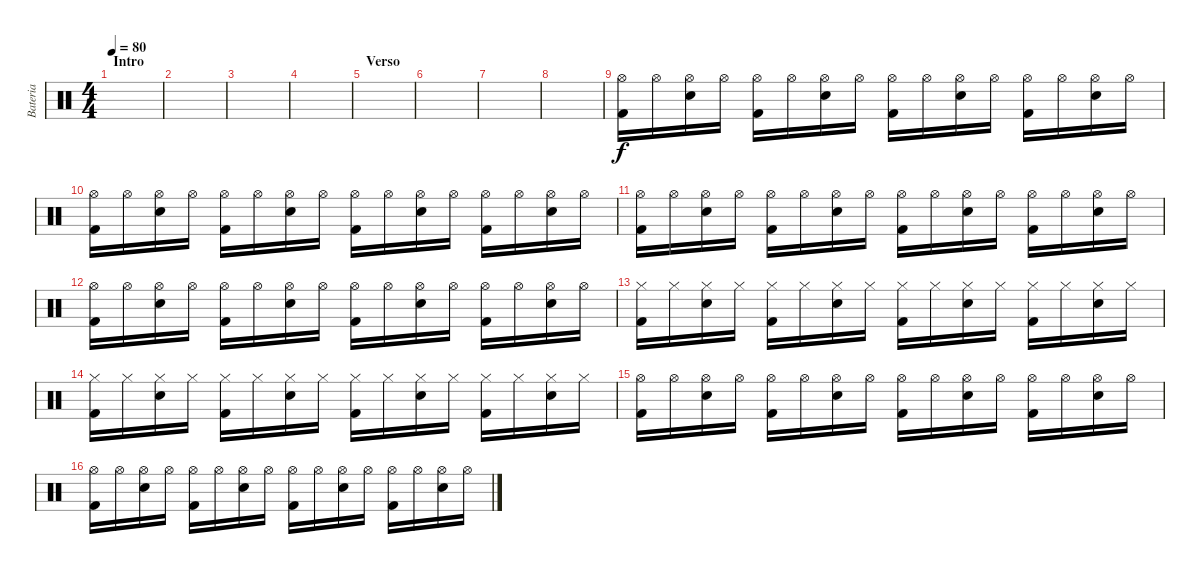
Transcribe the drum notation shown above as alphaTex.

\track ("Bateria" "Bateria") {instrument percussion}
\staff {score}
\articulation defaults
\ts (4 4)
\section ("" "Intro")
\tempo 80
\clef neutral
\ks c
|
|
|
|
\section ("" "Verso")
|
|
|
|
("Hi-Hat (open)" "Kick (hit) 2").16 "Hi-Hat (open)".16 ("Hi-Hat (open)" "Electric Snare (hit)").16 "Hi-Hat (open)".16 ("Hi-Hat (open)" "Kick (hit) 2").16 "Hi-Hat (open)".16 ("Hi-Hat (open)" "Electric Snare (hit)").16 "Hi-Hat (open)".16 ("Hi-Hat (open)" "Kick (hit) 2").16 "Hi-Hat (open)".16 ("Hi-Hat (open)" "Electric Snare (hit)").16 "Hi-Hat (open)".16 ("Hi-Hat (open)" "Kick (hit) 2").16 "Hi-Hat (open)".16 ("Hi-Hat (open)" "Electric Snare (hit)").16 "Hi-Hat (open)".16 |
("Hi-Hat (open)" "Kick (hit) 2").16 "Hi-Hat (open)".16 ("Hi-Hat (open)" "Electric Snare (hit)").16 "Hi-Hat (open)".16 ("Hi-Hat (open)" "Kick (hit) 2").16 "Hi-Hat (open)".16 ("Hi-Hat (open)" "Electric Snare (hit)").16 "Hi-Hat (open)".16 ("Hi-Hat (open)" "Kick (hit) 2").16 "Hi-Hat (open)".16 ("Hi-Hat (open)" "Electric Snare (hit)").16 "Hi-Hat (open)".16 ("Hi-Hat (open)" "Kick (hit) 2").16 "Hi-Hat (open)".16 ("Hi-Hat (open)" "Electric Snare (hit)").16 "Hi-Hat (open)".16 |
("Hi-Hat (open)" "Kick (hit) 2").16 "Hi-Hat (open)".16 ("Hi-Hat (open)" "Electric Snare (hit)").16 "Hi-Hat (open)".16 ("Hi-Hat (open)" "Kick (hit) 2").16 "Hi-Hat (open)".16 ("Hi-Hat (open)" "Electric Snare (hit)").16 "Hi-Hat (open)".16 ("Hi-Hat (open)" "Kick (hit) 2").16 "Hi-Hat (open)".16 ("Hi-Hat (open)" "Electric Snare (hit)").16 "Hi-Hat (open)".16 ("Hi-Hat (open)" "Kick (hit) 2").16 "Hi-Hat (open)".16 ("Hi-Hat (open)" "Electric Snare (hit)").16 "Hi-Hat (open)".16 |
("Hi-Hat (open)" "Kick (hit) 2").16 "Hi-Hat (open)".16 ("Hi-Hat (open)" "Electric Snare (hit)").16 "Hi-Hat (open)".16 ("Hi-Hat (open)" "Kick (hit) 2").16 "Hi-Hat (open)".16 ("Hi-Hat (open)" "Electric Snare (hit)").16 "Hi-Hat (open)".16 ("Hi-Hat (open)" "Kick (hit) 2").16 "Hi-Hat (open)".16 ("Hi-Hat (open)" "Electric Snare (hit)").16 "Hi-Hat (open)".16 ("Hi-Hat (open)" "Kick (hit) 2").16 "Hi-Hat (open)".16 ("Hi-Hat (open)" "Electric Snare (hit)").16 "Hi-Hat (open)".16 |
("Hi-Hat (closed)" "Kick (hit) 2").16 "Hi-Hat (closed)".16 ("Hi-Hat (closed)" "Electric Snare (hit)").16 "Hi-Hat (closed)".16 ("Hi-Hat (closed)" "Kick (hit) 2").16 "Hi-Hat (closed)".16 ("Hi-Hat (closed)" "Electric Snare (hit)").16 "Hi-Hat (closed)".16 ("Hi-Hat (closed)" "Kick (hit) 2").16 "Hi-Hat (closed)".16 ("Hi-Hat (closed)" "Electric Snare (hit)").16 "Hi-Hat (closed)".16 ("Hi-Hat (closed)" "Kick (hit) 2").16 "Hi-Hat (closed)".16 ("Hi-Hat (closed)" "Electric Snare (hit)").16 "Hi-Hat (closed)".16 |
("Hi-Hat (closed)" "Kick (hit) 2").16 "Hi-Hat (closed)".16 ("Hi-Hat (closed)" "Electric Snare (hit)").16 "Hi-Hat (closed)".16 ("Hi-Hat (closed)" "Kick (hit) 2").16 "Hi-Hat (closed)".16 ("Hi-Hat (closed)" "Electric Snare (hit)").16 "Hi-Hat (closed)".16 ("Hi-Hat (closed)" "Kick (hit) 2").16 "Hi-Hat (closed)".16 ("Hi-Hat (closed)" "Electric Snare (hit)").16 "Hi-Hat (closed)".16 ("Hi-Hat (closed)" "Kick (hit) 2").16 "Hi-Hat (closed)".16 ("Hi-Hat (closed)" "Electric Snare (hit)").16 "Hi-Hat (closed)".16 |
("Hi-Hat (open)" "Kick (hit) 2").16 "Hi-Hat (open)".16 ("Hi-Hat (open)" "Electric Snare (hit)").16 "Hi-Hat (open)".16 ("Hi-Hat (open)" "Kick (hit) 2").16 "Hi-Hat (open)".16 ("Hi-Hat (open)" "Electric Snare (hit)").16 "Hi-Hat (open)".16 ("Hi-Hat (open)" "Kick (hit) 2").16 "Hi-Hat (open)".16 ("Hi-Hat (open)" "Electric Snare (hit)").16 "Hi-Hat (open)".16 ("Hi-Hat (open)" "Kick (hit) 2").16 "Hi-Hat (open)".16 ("Hi-Hat (open)" "Electric Snare (hit)").16 "Hi-Hat (open)".16 |
("Hi-Hat (open)" "Kick (hit) 2").16 "Hi-Hat (open)".16 ("Hi-Hat (open)" "Electric Snare (hit)").16 "Hi-Hat (open)".16 ("Hi-Hat (open)" "Kick (hit) 2").16 "Hi-Hat (open)".16 ("Hi-Hat (open)" "Electric Snare (hit)").16 "Hi-Hat (open)".16 ("Hi-Hat (open)" "Kick (hit) 2").16 "Hi-Hat (open)".16 ("Hi-Hat (open)" "Electric Snare (hit)").16 "Hi-Hat (open)".16 ("Hi-Hat (open)" "Kick (hit) 2").16 "Hi-Hat (open)".16 ("Hi-Hat (open)" "Electric Snare (hit)").16 "Hi-Hat (open)".16
